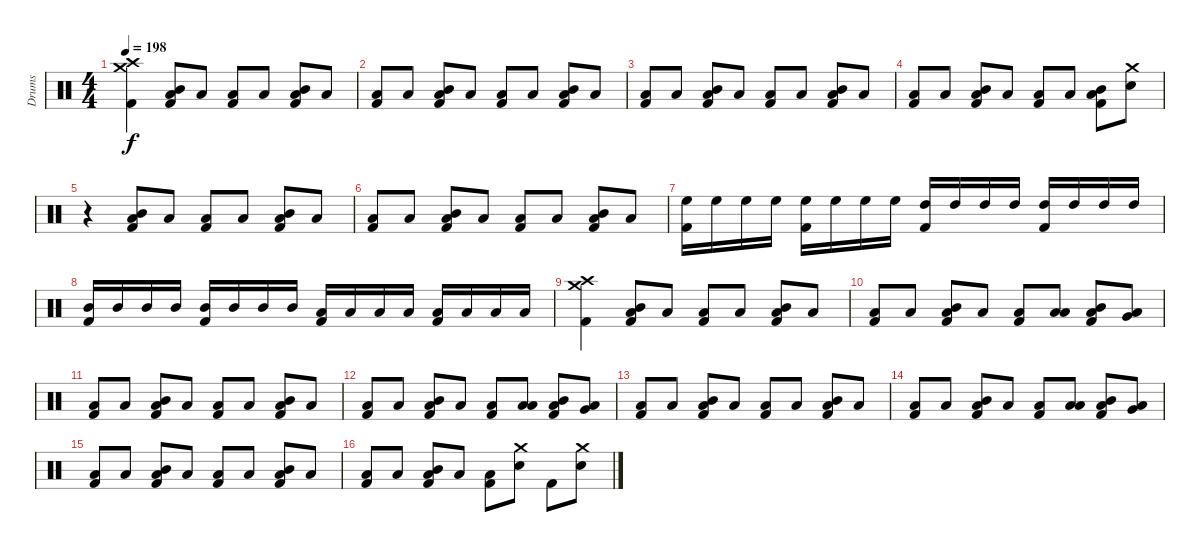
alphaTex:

\track ("Drums" "Drums") {instrument percussion}
\staff {score}
\articulation defaults
\ts (4 4)
\tempo 198
\clef neutral
\ks c
("Crash medium (hit)" "Crash high (hit)" "Kick (hit) 2").4{dy f} ("Low Floor Tom (hit)" "Mid Tom (hit)" "Kick (hit) 2").8 "Low Floor Tom (hit)".8 ("Low Floor Tom (hit)" "Kick (hit) 2").8 "Low Floor Tom (hit)".8 ("Low Floor Tom (hit)" "Mid Tom (hit)" "Kick (hit) 2").8 "Low Floor Tom (hit)".8 |
("Low Floor Tom (hit)" "Kick (hit) 2").8 "Low Floor Tom (hit)".8 ("Low Floor Tom (hit)" "Mid Tom (hit)" "Kick (hit) 2").8 "Low Floor Tom (hit)".8 ("Low Floor Tom (hit)" "Kick (hit) 2").8 "Low Floor Tom (hit)".8 ("Low Floor Tom (hit)" "Mid Tom (hit)" "Kick (hit) 2").8 "Low Floor Tom (hit)".8 |
("Low Floor Tom (hit)" "Kick (hit) 2").8 "Low Floor Tom (hit)".8 ("Low Floor Tom (hit)" "Mid Tom (hit)" "Kick (hit) 2").8 "Low Floor Tom (hit)".8 ("Low Floor Tom (hit)" "Kick (hit) 2").8 "Low Floor Tom (hit)".8 ("Low Floor Tom (hit)" "Mid Tom (hit)" "Kick (hit) 2").8 "Low Floor Tom (hit)".8 |
("Low Floor Tom (hit)" "Kick (hit) 2").8 "Low Floor Tom (hit)".8 ("Low Floor Tom (hit)" "Mid Tom (hit)" "Kick (hit) 2").8 "Low Floor Tom (hit)".8 ("Low Floor Tom (hit)" "Kick (hit) 2").8 "Low Floor Tom (hit)".8 ("Low Floor Tom (hit)" "Mid Tom (hit)" "Kick (hit) 2").8 ("Crash medium (hit)" "Electric Snare (hit)").8 |
r.4 ("Low Floor Tom (hit)" "Mid Tom (hit)" "Kick (hit) 2").8 "Low Floor Tom (hit)".8 ("Low Floor Tom (hit)" "Kick (hit) 2").8 "Low Floor Tom (hit)".8 ("Low Floor Tom (hit)" "Mid Tom (hit)" "Kick (hit) 2").8 "Low Floor Tom (hit)".8 |
("Low Floor Tom (hit)" "Kick (hit) 2").8 "Low Floor Tom (hit)".8 ("Low Floor Tom (hit)" "Mid Tom (hit)" "Kick (hit) 2").8 "Low Floor Tom (hit)".8 ("Low Floor Tom (hit)" "Kick (hit) 2").8 "Low Floor Tom (hit)".8 ("Low Floor Tom (hit)" "Mid Tom (hit)" "Kick (hit) 2").8 "Low Floor Tom (hit)".8 |
("High Floor Tom (hit)" "Kick (hit) 2").16 "High Floor Tom (hit)".16 "High Floor Tom (hit)".16 "High Floor Tom (hit)".16 ("High Floor Tom (hit)" "Kick (hit) 2").16 "High Floor Tom (hit)".16 "High Floor Tom (hit)".16 "High Floor Tom (hit)".16 ("High Tom (hit)" "Kick (hit) 2").16 "High Tom (hit)".16 "High Tom (hit)".16 "High Tom (hit)".16 ("High Tom (hit)" "Kick (hit) 2").16 "High Tom (hit)".16 "High Tom (hit)".16 "High Tom (hit)".16 |
("Mid Tom (hit)" "Kick (hit) 2").16 "Mid Tom (hit)".16 "Mid Tom (hit)".16 "Mid Tom (hit)".16 ("Mid Tom (hit)" "Kick (hit) 2").16 "Mid Tom (hit)".16 "Mid Tom (hit)".16 "Mid Tom (hit)".16 ("Low Tom (hit)" "Kick (hit) 2").16 "Low Tom (hit)".16 "Low Tom (hit)".16 "Low Tom (hit)".16 ("Low Tom (hit)" "Kick (hit) 2").16 "Low Tom (hit)".16 "Low Tom (hit)".16 "Low Tom (hit)".16 |
("Crash medium (hit)" "Crash high (hit)" "Kick (hit) 2").4 ("Low Floor Tom (hit)" "Mid Tom (hit)" "Kick (hit) 2").8 "Low Floor Tom (hit)".8 ("Low Floor Tom (hit)" "Kick (hit) 2").8 "Low Floor Tom (hit)".8 ("Low Floor Tom (hit)" "Mid Tom (hit)" "Kick (hit) 2").8 "Low Floor Tom (hit)".8 |
("Low Floor Tom (hit)" "Kick (hit) 2").8 "Low Floor Tom (hit)".8 ("Low Floor Tom (hit)" "Mid Tom (hit)" "Kick (hit) 2").8 "Low Floor Tom (hit)".8 ("Low Floor Tom (hit)" "Kick (hit) 2").8 ("Low Floor Tom (hit)" "Low Tom (hit)").8 ("Low Floor Tom (hit)" "Mid Tom (hit)" "Kick (hit) 2").8 ("Low Floor Tom (hit)" "Very Low Tom (hit)").8 |
("Low Floor Tom (hit)" "Kick (hit) 2").8 "Low Floor Tom (hit)".8 ("Low Floor Tom (hit)" "Mid Tom (hit)" "Kick (hit) 2").8 "Low Floor Tom (hit)".8 ("Low Floor Tom (hit)" "Kick (hit) 2").8 "Low Floor Tom (hit)".8 ("Low Floor Tom (hit)" "Mid Tom (hit)" "Kick (hit) 2").8 "Low Floor Tom (hit)".8 |
("Low Floor Tom (hit)" "Kick (hit) 2").8 "Low Floor Tom (hit)".8 ("Low Floor Tom (hit)" "Mid Tom (hit)" "Kick (hit) 2").8 "Low Floor Tom (hit)".8 ("Low Floor Tom (hit)" "Kick (hit) 2").8 ("Low Floor Tom (hit)" "Low Tom (hit)").8 ("Low Floor Tom (hit)" "Mid Tom (hit)" "Kick (hit) 2").8 ("Low Floor Tom (hit)" "Very Low Tom (hit)").8 |
("Low Floor Tom (hit)" "Kick (hit) 2").8 "Low Floor Tom (hit)".8 ("Low Floor Tom (hit)" "Mid Tom (hit)" "Kick (hit) 2").8 "Low Floor Tom (hit)".8 ("Low Floor Tom (hit)" "Kick (hit) 2").8 "Low Floor Tom (hit)".8 ("Low Floor Tom (hit)" "Mid Tom (hit)" "Kick (hit) 2").8 "Low Floor Tom (hit)".8 |
("Low Floor Tom (hit)" "Kick (hit) 2").8 "Low Floor Tom (hit)".8 ("Low Floor Tom (hit)" "Mid Tom (hit)" "Kick (hit) 2").8 "Low Floor Tom (hit)".8 ("Low Floor Tom (hit)" "Kick (hit) 2").8 ("Low Floor Tom (hit)" "Low Tom (hit)").8 ("Low Floor Tom (hit)" "Mid Tom (hit)" "Kick (hit) 2").8 ("Low Floor Tom (hit)" "Very Low Tom (hit)").8 |
("Low Floor Tom (hit)" "Kick (hit) 2").8 "Low Floor Tom (hit)".8 ("Low Floor Tom (hit)" "Mid Tom (hit)" "Kick (hit) 2").8 "Low Floor Tom (hit)".8 ("Low Floor Tom (hit)" "Kick (hit) 2").8 "Low Floor Tom (hit)".8 ("Low Floor Tom (hit)" "Mid Tom (hit)" "Kick (hit) 2").8 "Low Floor Tom (hit)".8 |
("Low Floor Tom (hit)" "Kick (hit) 2").8 "Low Floor Tom (hit)".8 ("Low Floor Tom (hit)" "Mid Tom (hit)" "Kick (hit) 2").8 "Low Floor Tom (hit)".8 ("Low Floor Tom (hit)" "Kick (hit) 2").8 ("Crash medium (hit)" "Electric Snare (hit)").8 "Kick (hit) 2".8 ("Crash medium (hit)" "Electric Snare (hit)").8
